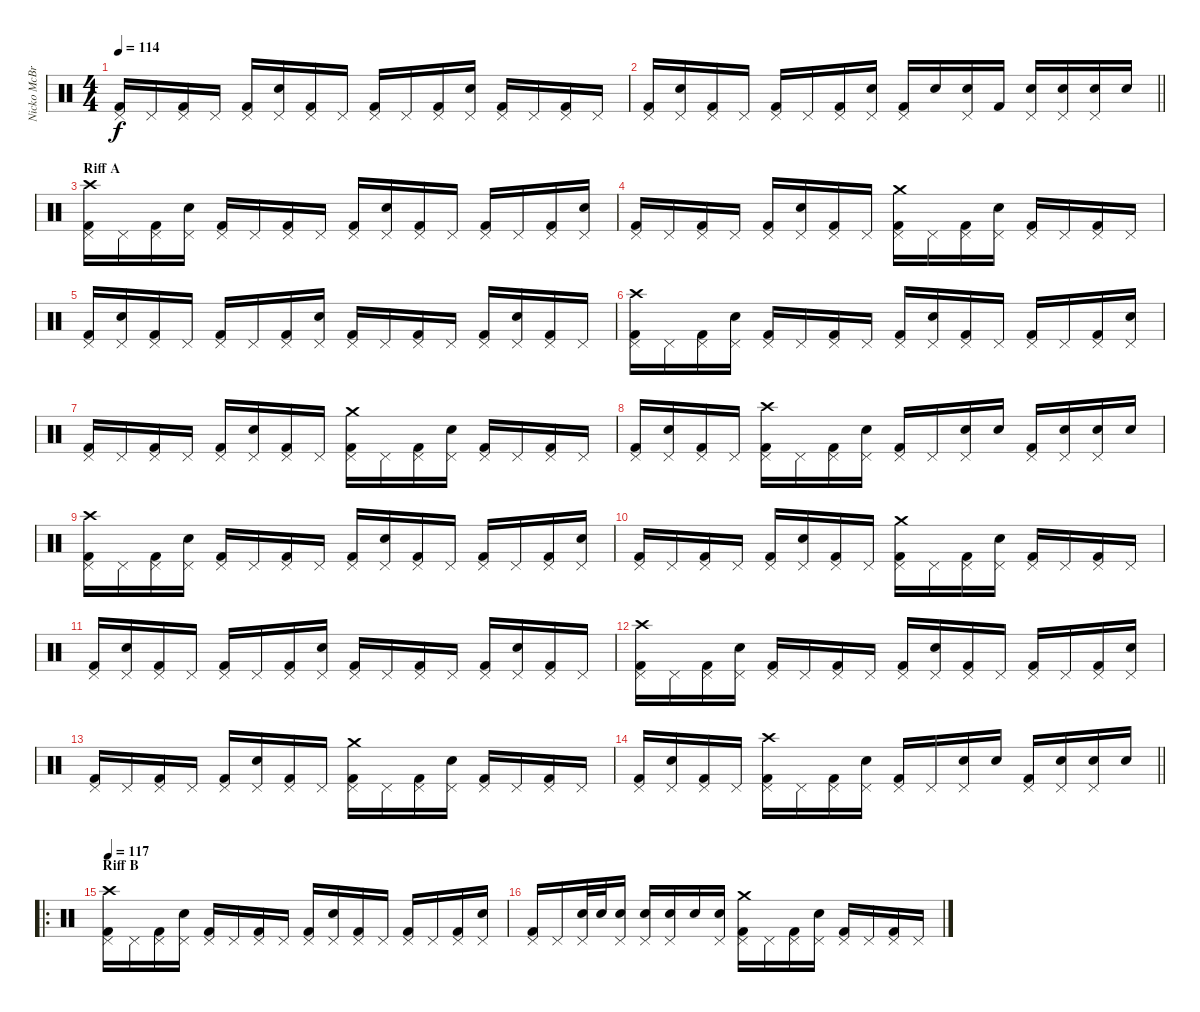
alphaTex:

\track ("Nicko McBrain" "Nicko McBr") {instrument percussion}
\staff {score}
\articulation defaults
\ts (4 4)
\tempo 114
\clef neutral
\ks c
("Kick (hit) 2" "Pedal Hi-Hat (hit)").16{dy f} "Pedal Hi-Hat (hit)".16 ("Kick (hit) 2" "Pedal Hi-Hat (hit)").16 "Pedal Hi-Hat (hit)".16 ("Kick (hit) 2" "Pedal Hi-Hat (hit)").16 ("Snare (hit) 2" "Pedal Hi-Hat (hit)").16 ("Kick (hit) 2" "Pedal Hi-Hat (hit)").16 "Pedal Hi-Hat (hit)".16 ("Kick (hit) 2" "Pedal Hi-Hat (hit)").16 "Pedal Hi-Hat (hit)".16 ("Kick (hit) 2" "Pedal Hi-Hat (hit)").16 ("Snare (hit) 2" "Pedal Hi-Hat (hit)").16 ("Kick (hit) 2" "Pedal Hi-Hat (hit)").16 "Pedal Hi-Hat (hit)".16 ("Kick (hit) 2" "Pedal Hi-Hat (hit)").16 "Pedal Hi-Hat (hit)".16 |
\barLineRight lightlight
("Kick (hit) 2" "Pedal Hi-Hat (hit)").16 ("Snare (hit) 2" "Pedal Hi-Hat (hit)").16 ("Kick (hit) 2" "Pedal Hi-Hat (hit)").16 "Pedal Hi-Hat (hit)".16 ("Kick (hit) 2" "Pedal Hi-Hat (hit)").16 "Pedal Hi-Hat (hit)".16 ("Kick (hit) 2" "Pedal Hi-Hat (hit)").16 ("Snare (hit) 2" "Pedal Hi-Hat (hit)").16 ("Kick (hit) 2" "Pedal Hi-Hat (hit)").16 "Snare (hit) 2".16 ("Snare (hit) 2" "Pedal Hi-Hat (hit)").16 "Kick (hit) 2".16 ("Snare (hit) 2" "Pedal Hi-Hat (hit)").16 ("Snare (hit) 2" "Pedal Hi-Hat (hit)").16 ("Snare (hit) 2" "Pedal Hi-Hat (hit)").16 "Snare (hit) 2".16 |
\section ("" "Riff A")
("Kick (hit) 2" "Pedal Hi-Hat (hit)" "Crash high (hit)").16 "Pedal Hi-Hat (hit)".16 ("Kick (hit) 2" "Pedal Hi-Hat (hit)").16 ("Snare (hit) 2" "Pedal Hi-Hat (hit)").16 ("Kick (hit) 2" "Pedal Hi-Hat (hit)").16 "Pedal Hi-Hat (hit)".16 ("Kick (hit) 2" "Pedal Hi-Hat (hit)").16 "Pedal Hi-Hat (hit)".16 ("Kick (hit) 2" "Pedal Hi-Hat (hit)").16 ("Snare (hit) 2" "Pedal Hi-Hat (hit)").16 ("Kick (hit) 2" "Pedal Hi-Hat (hit)").16 "Pedal Hi-Hat (hit)".16 ("Kick (hit) 2" "Pedal Hi-Hat (hit)").16 "Pedal Hi-Hat (hit)".16 ("Kick (hit) 2" "Pedal Hi-Hat (hit)").16 ("Snare (hit) 2" "Pedal Hi-Hat (hit)").16 |
("Kick (hit) 2" "Pedal Hi-Hat (hit)").16 "Pedal Hi-Hat (hit)".16 ("Kick (hit) 2" "Pedal Hi-Hat (hit)").16 "Pedal Hi-Hat (hit)".16 ("Kick (hit) 2" "Pedal Hi-Hat (hit)").16 ("Snare (hit) 2" "Pedal Hi-Hat (hit)").16 ("Kick (hit) 2" "Pedal Hi-Hat (hit)").16 "Pedal Hi-Hat (hit)".16 ("Kick (hit) 2" "Pedal Hi-Hat (hit)" "Crash medium (hit)").16 "Pedal Hi-Hat (hit)".16 ("Kick (hit) 2" "Pedal Hi-Hat (hit)").16 ("Snare (hit) 2" "Pedal Hi-Hat (hit)").16 ("Kick (hit) 2" "Pedal Hi-Hat (hit)").16 "Pedal Hi-Hat (hit)".16 ("Kick (hit) 2" "Pedal Hi-Hat (hit)").16 "Pedal Hi-Hat (hit)".16 |
("Kick (hit) 2" "Pedal Hi-Hat (hit)").16 ("Snare (hit) 2" "Pedal Hi-Hat (hit)").16 ("Kick (hit) 2" "Pedal Hi-Hat (hit)").16 "Pedal Hi-Hat (hit)".16 ("Kick (hit) 2" "Pedal Hi-Hat (hit)").16 "Pedal Hi-Hat (hit)".16 ("Kick (hit) 2" "Pedal Hi-Hat (hit)").16 ("Snare (hit) 2" "Pedal Hi-Hat (hit)").16 ("Kick (hit) 2" "Pedal Hi-Hat (hit)").16 "Pedal Hi-Hat (hit)".16 ("Kick (hit) 2" "Pedal Hi-Hat (hit)").16 "Pedal Hi-Hat (hit)".16 ("Kick (hit) 2" "Pedal Hi-Hat (hit)").16 ("Snare (hit) 2" "Pedal Hi-Hat (hit)").16 ("Kick (hit) 2" "Pedal Hi-Hat (hit)").16 "Pedal Hi-Hat (hit)".16 |
("Kick (hit) 2" "Pedal Hi-Hat (hit)" "Crash high (hit)").16 "Pedal Hi-Hat (hit)".16 ("Kick (hit) 2" "Pedal Hi-Hat (hit)").16 ("Snare (hit) 2" "Pedal Hi-Hat (hit)").16 ("Kick (hit) 2" "Pedal Hi-Hat (hit)").16 "Pedal Hi-Hat (hit)".16 ("Kick (hit) 2" "Pedal Hi-Hat (hit)").16 "Pedal Hi-Hat (hit)".16 ("Kick (hit) 2" "Pedal Hi-Hat (hit)").16 ("Snare (hit) 2" "Pedal Hi-Hat (hit)").16 ("Kick (hit) 2" "Pedal Hi-Hat (hit)").16 "Pedal Hi-Hat (hit)".16 ("Kick (hit) 2" "Pedal Hi-Hat (hit)").16 "Pedal Hi-Hat (hit)".16 ("Kick (hit) 2" "Pedal Hi-Hat (hit)").16 ("Snare (hit) 2" "Pedal Hi-Hat (hit)").16 |
("Kick (hit) 2" "Pedal Hi-Hat (hit)").16 "Pedal Hi-Hat (hit)".16 ("Kick (hit) 2" "Pedal Hi-Hat (hit)").16 "Pedal Hi-Hat (hit)".16 ("Kick (hit) 2" "Pedal Hi-Hat (hit)").16 ("Snare (hit) 2" "Pedal Hi-Hat (hit)").16 ("Kick (hit) 2" "Pedal Hi-Hat (hit)").16 "Pedal Hi-Hat (hit)".16 ("Kick (hit) 2" "Pedal Hi-Hat (hit)" "Crash medium (hit)").16 "Pedal Hi-Hat (hit)".16 ("Kick (hit) 2" "Pedal Hi-Hat (hit)").16 ("Snare (hit) 2" "Pedal Hi-Hat (hit)").16 ("Kick (hit) 2" "Pedal Hi-Hat (hit)").16 "Pedal Hi-Hat (hit)".16 ("Kick (hit) 2" "Pedal Hi-Hat (hit)").16 "Pedal Hi-Hat (hit)".16 |
("Kick (hit) 2" "Pedal Hi-Hat (hit)").16 ("Snare (hit) 2" "Pedal Hi-Hat (hit)").16 ("Kick (hit) 2" "Pedal Hi-Hat (hit)").16 "Pedal Hi-Hat (hit)".16 ("Kick (hit) 2" "Pedal Hi-Hat (hit)" "Crash high (hit)").16 "Pedal Hi-Hat (hit)".16 ("Kick (hit) 2" "Pedal Hi-Hat (hit)").16 ("Snare (hit) 2" "Pedal Hi-Hat (hit)").16 ("Kick (hit) 2" "Pedal Hi-Hat (hit)").16 "Pedal Hi-Hat (hit)".16 ("Snare (hit) 2" "Pedal Hi-Hat (hit)").16 "Snare (hit) 2".16 ("Kick (hit) 2" "Pedal Hi-Hat (hit)").16 ("Snare (hit) 2" "Pedal Hi-Hat (hit)").16 ("Snare (hit) 2" "Pedal Hi-Hat (hit)").16 "Snare (hit) 2".16 |
("Kick (hit) 2" "Pedal Hi-Hat (hit)" "Crash high (hit)").16 "Pedal Hi-Hat (hit)".16 ("Kick (hit) 2" "Pedal Hi-Hat (hit)").16 ("Snare (hit) 2" "Pedal Hi-Hat (hit)").16 ("Kick (hit) 2" "Pedal Hi-Hat (hit)").16 "Pedal Hi-Hat (hit)".16 ("Kick (hit) 2" "Pedal Hi-Hat (hit)").16 "Pedal Hi-Hat (hit)".16 ("Kick (hit) 2" "Pedal Hi-Hat (hit)").16 ("Snare (hit) 2" "Pedal Hi-Hat (hit)").16 ("Kick (hit) 2" "Pedal Hi-Hat (hit)").16 "Pedal Hi-Hat (hit)".16 ("Kick (hit) 2" "Pedal Hi-Hat (hit)").16 "Pedal Hi-Hat (hit)".16 ("Kick (hit) 2" "Pedal Hi-Hat (hit)").16 ("Snare (hit) 2" "Pedal Hi-Hat (hit)").16 |
("Kick (hit) 2" "Pedal Hi-Hat (hit)").16 "Pedal Hi-Hat (hit)".16 ("Kick (hit) 2" "Pedal Hi-Hat (hit)").16 "Pedal Hi-Hat (hit)".16 ("Kick (hit) 2" "Pedal Hi-Hat (hit)").16 ("Snare (hit) 2" "Pedal Hi-Hat (hit)").16 ("Kick (hit) 2" "Pedal Hi-Hat (hit)").16 "Pedal Hi-Hat (hit)".16 ("Kick (hit) 2" "Pedal Hi-Hat (hit)" "Crash medium (hit)").16 "Pedal Hi-Hat (hit)".16 ("Kick (hit) 2" "Pedal Hi-Hat (hit)").16 ("Snare (hit) 2" "Pedal Hi-Hat (hit)").16 ("Kick (hit) 2" "Pedal Hi-Hat (hit)").16 "Pedal Hi-Hat (hit)".16 ("Kick (hit) 2" "Pedal Hi-Hat (hit)").16 "Pedal Hi-Hat (hit)".16 |
("Kick (hit) 2" "Pedal Hi-Hat (hit)").16 ("Snare (hit) 2" "Pedal Hi-Hat (hit)").16 ("Kick (hit) 2" "Pedal Hi-Hat (hit)").16 "Pedal Hi-Hat (hit)".16 ("Kick (hit) 2" "Pedal Hi-Hat (hit)").16 "Pedal Hi-Hat (hit)".16 ("Kick (hit) 2" "Pedal Hi-Hat (hit)").16 ("Snare (hit) 2" "Pedal Hi-Hat (hit)").16 ("Kick (hit) 2" "Pedal Hi-Hat (hit)").16 "Pedal Hi-Hat (hit)".16 ("Kick (hit) 2" "Pedal Hi-Hat (hit)").16 "Pedal Hi-Hat (hit)".16 ("Kick (hit) 2" "Pedal Hi-Hat (hit)").16 ("Snare (hit) 2" "Pedal Hi-Hat (hit)").16 ("Kick (hit) 2" "Pedal Hi-Hat (hit)").16 "Pedal Hi-Hat (hit)".16 |
("Kick (hit) 2" "Pedal Hi-Hat (hit)" "Crash high (hit)").16 "Pedal Hi-Hat (hit)".16 ("Kick (hit) 2" "Pedal Hi-Hat (hit)").16 ("Snare (hit) 2" "Pedal Hi-Hat (hit)").16 ("Kick (hit) 2" "Pedal Hi-Hat (hit)").16 "Pedal Hi-Hat (hit)".16 ("Kick (hit) 2" "Pedal Hi-Hat (hit)").16 "Pedal Hi-Hat (hit)".16 ("Kick (hit) 2" "Pedal Hi-Hat (hit)").16 ("Snare (hit) 2" "Pedal Hi-Hat (hit)").16 ("Kick (hit) 2" "Pedal Hi-Hat (hit)").16 "Pedal Hi-Hat (hit)".16 ("Kick (hit) 2" "Pedal Hi-Hat (hit)").16 "Pedal Hi-Hat (hit)".16 ("Kick (hit) 2" "Pedal Hi-Hat (hit)").16 ("Snare (hit) 2" "Pedal Hi-Hat (hit)").16 |
("Kick (hit) 2" "Pedal Hi-Hat (hit)").16 "Pedal Hi-Hat (hit)".16 ("Kick (hit) 2" "Pedal Hi-Hat (hit)").16 "Pedal Hi-Hat (hit)".16 ("Kick (hit) 2" "Pedal Hi-Hat (hit)").16 ("Snare (hit) 2" "Pedal Hi-Hat (hit)").16 ("Kick (hit) 2" "Pedal Hi-Hat (hit)").16 "Pedal Hi-Hat (hit)".16 ("Kick (hit) 2" "Pedal Hi-Hat (hit)" "Crash medium (hit)").16 "Pedal Hi-Hat (hit)".16 ("Kick (hit) 2" "Pedal Hi-Hat (hit)").16 ("Snare (hit) 2" "Pedal Hi-Hat (hit)").16 ("Kick (hit) 2" "Pedal Hi-Hat (hit)").16 "Pedal Hi-Hat (hit)".16 ("Kick (hit) 2" "Pedal Hi-Hat (hit)").16 "Pedal Hi-Hat (hit)".16 |
\barLineRight lightlight
("Kick (hit) 2" "Pedal Hi-Hat (hit)").16 ("Snare (hit) 2" "Pedal Hi-Hat (hit)").16 ("Kick (hit) 2" "Pedal Hi-Hat (hit)").16 "Pedal Hi-Hat (hit)".16 ("Kick (hit) 2" "Pedal Hi-Hat (hit)" "Crash high (hit)").16 "Pedal Hi-Hat (hit)".16 ("Kick (hit) 2" "Pedal Hi-Hat (hit)").16 ("Snare (hit) 2" "Pedal Hi-Hat (hit)").16 ("Kick (hit) 2" "Pedal Hi-Hat (hit)").16 "Pedal Hi-Hat (hit)".16 ("Snare (hit) 2" "Pedal Hi-Hat (hit)").16 "Snare (hit) 2".16 ("Kick (hit) 2" "Pedal Hi-Hat (hit)").16 ("Snare (hit) 2" "Pedal Hi-Hat (hit)").16 ("Snare (hit) 2" "Pedal Hi-Hat (hit)").16 "Snare (hit) 2".16 |
\ro
\section ("" "Riff B")
\tempo 117
("Kick (hit) 2" "Pedal Hi-Hat (hit)" "Crash high (hit)").16 "Pedal Hi-Hat (hit)".16 ("Kick (hit) 2" "Pedal Hi-Hat (hit)").16 ("Snare (hit) 2" "Pedal Hi-Hat (hit)").16 ("Kick (hit) 2" "Pedal Hi-Hat (hit)").16 "Pedal Hi-Hat (hit)".16 ("Kick (hit) 2" "Pedal Hi-Hat (hit)").16 "Pedal Hi-Hat (hit)".16 ("Kick (hit) 2" "Pedal Hi-Hat (hit)").16 ("Snare (hit) 2" "Pedal Hi-Hat (hit)").16 ("Kick (hit) 2" "Pedal Hi-Hat (hit)").16 "Pedal Hi-Hat (hit)".16 ("Kick (hit) 2" "Pedal Hi-Hat (hit)").16 "Pedal Hi-Hat (hit)".16 ("Kick (hit) 2" "Pedal Hi-Hat (hit)").16 ("Snare (hit) 2" "Pedal Hi-Hat (hit)").16 |
("Kick (hit) 2" "Pedal Hi-Hat (hit)").16 "Pedal Hi-Hat (hit)".16 ("Snare (hit) 2" "Pedal Hi-Hat (hit)").32 "Snare (hit) 2".32 ("Snare (hit) 2" "Pedal Hi-Hat (hit)").16 ("Snare (hit) 2" "Pedal Hi-Hat (hit)").16 ("Snare (hit) 2" "Pedal Hi-Hat (hit)").16 "Snare (hit) 2".16 ("Snare (hit) 2" "Pedal Hi-Hat (hit)").16 ("Kick (hit) 2" "Pedal Hi-Hat (hit)" "Crash medium (hit)").16 "Pedal Hi-Hat (hit)".16 ("Kick (hit) 2" "Pedal Hi-Hat (hit)").16 ("Snare (hit) 2" "Pedal Hi-Hat (hit)").16 ("Kick (hit) 2" "Pedal Hi-Hat (hit)").16 "Pedal Hi-Hat (hit)".16 ("Kick (hit) 2" "Pedal Hi-Hat (hit)").16 "Pedal Hi-Hat (hit)".16
